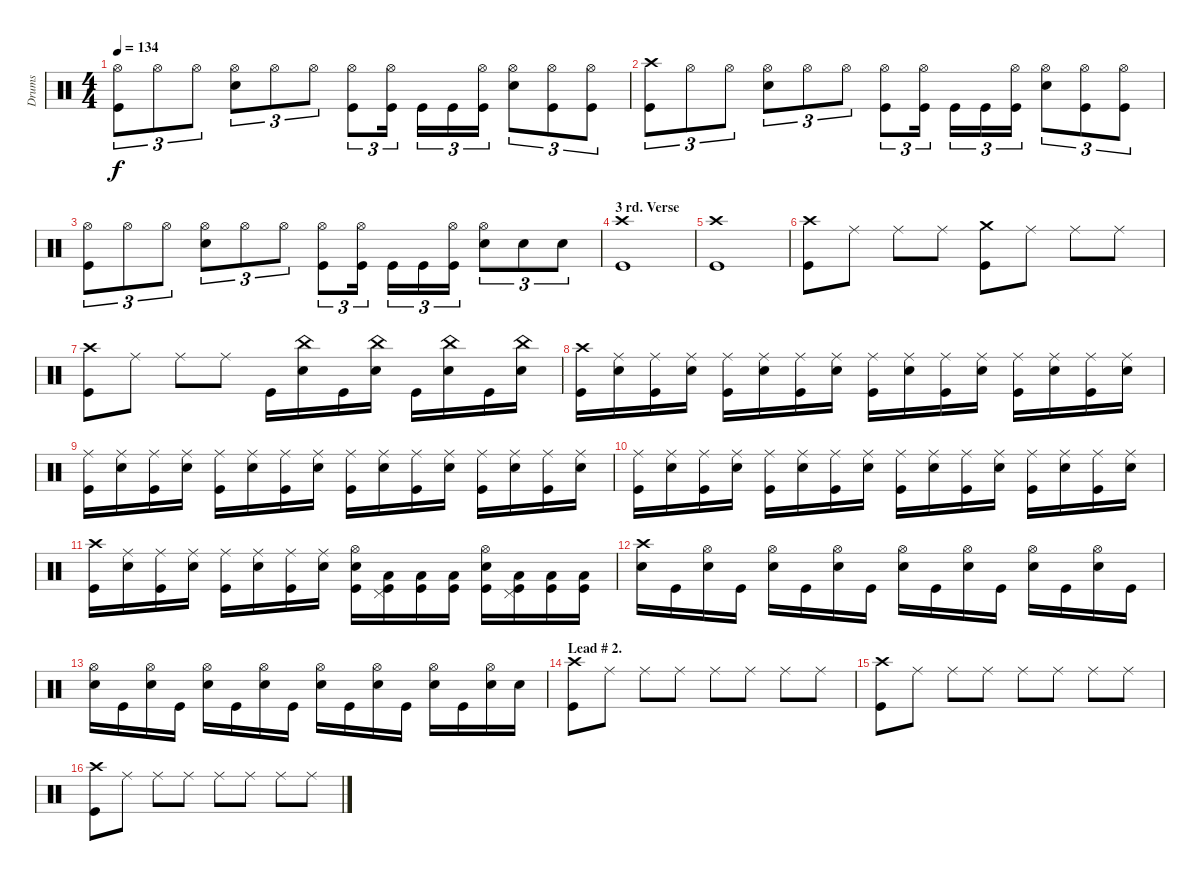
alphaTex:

\track ("Drums" "Drums") {instrument percussion}
\staff {score}
\articulation defaults
\ts (4 4)
\tempo 134
\clef neutral
\ks c
("Hi-Hat (open)" "Kick (hit)").8{tu (3 2) dy f} "Hi-Hat (open)".8{tu (3 2)} "Hi-Hat (open)".8{tu (3 2)} ("Hi-Hat (open)" "Electric Snare (hit)").8{tu (3 2)} "Hi-Hat (open)".8{tu (3 2)} "Hi-Hat (open)".8{tu (3 2)} ("Hi-Hat (open)" "Kick (hit)").8{tu (3 2)} ("Hi-Hat (open)" "Kick (hit)").16{tu (3 2)} "Kick (hit)".16{tu (3 2)} "Kick (hit)".16{tu (3 2)} ("Hi-Hat (open)" "Kick (hit)").16{tu (3 2)} ("Hi-Hat (open)" "Electric Snare (hit)").8{tu (3 2)} ("Hi-Hat (open)" "Kick (hit)").8{tu (3 2)} ("Hi-Hat (open)" "Kick (hit)").8{tu (3 2)} |
("Crash high (hit)" "Kick (hit)").8{tu (3 2)} "Hi-Hat (open)".8{tu (3 2)} "Hi-Hat (open)".8{tu (3 2)} ("Hi-Hat (open)" "Electric Snare (hit)").8{tu (3 2)} "Hi-Hat (open)".8{tu (3 2)} "Hi-Hat (open)".8{tu (3 2)} ("Hi-Hat (open)" "Kick (hit)").8{tu (3 2)} ("Hi-Hat (open)" "Kick (hit)").16{tu (3 2)} "Kick (hit)".16{tu (3 2)} "Kick (hit)".16{tu (3 2)} ("Hi-Hat (open)" "Kick (hit)").16{tu (3 2)} ("Hi-Hat (open)" "Electric Snare (hit)").8{tu (3 2)} ("Hi-Hat (open)" "Kick (hit)").8{tu (3 2)} ("Hi-Hat (open)" "Kick (hit)").8{tu (3 2)} |
("Hi-Hat (open)" "Kick (hit)").8{tu (3 2)} "Hi-Hat (open)".8{tu (3 2)} "Hi-Hat (open)".8{tu (3 2)} ("Hi-Hat (open)" "Electric Snare (hit)").8{tu (3 2)} "Hi-Hat (open)".8{tu (3 2)} "Hi-Hat (open)".8{tu (3 2)} ("Hi-Hat (open)" "Kick (hit)").8{tu (3 2)} ("Hi-Hat (open)" "Kick (hit)").16{tu (3 2)} "Kick (hit)".16{tu (3 2)} "Kick (hit)".16{tu (3 2)} ("Hi-Hat (open)" "Kick (hit)").16{tu (3 2)} ("Hi-Hat (open)" "Electric Snare (hit)").8{tu (3 2)} "Electric Snare (hit)".8{tu (3 2)} "Electric Snare (hit)".8{tu (3 2)} |
\section ("" "3 rd. Verse")
("Crash high (hit)" "Kick (hit)").1 |
("Crash high (hit)" "Kick (hit)").1 |
("Crash high (hit)" "Kick (hit)").8 "Ride (middle)".8 "Ride (middle)".8 "Ride (middle)".8 ("Crash medium (hit)" "Kick (hit)").8 "Ride (middle)".8 "Ride (middle)".8 "Ride (middle)".8 |
("Crash high (hit)" "Kick (hit)").8 "Ride (middle)".8 "Ride (middle)".8 "Ride (middle)".8 "Kick (hit)".16 ("China (hit)" "Electric Snare (hit)").16 "Kick (hit)".16 ("China (hit)" "Electric Snare (hit)").16 "Kick (hit)".16 ("China (hit)" "Electric Snare (hit)").16 "Kick (hit)".16 ("China (hit)" "Electric Snare (hit)").16 |
("Crash high (hit)" "Kick (hit)").16 ("Ride (middle)" "Electric Snare (hit)").16 ("Ride (middle)" "Kick (hit)").16 ("Ride (middle)" "Electric Snare (hit)").16 ("Ride (middle)" "Kick (hit)").16 ("Ride (middle)" "Electric Snare (hit)").16 ("Ride (middle)" "Kick (hit)").16 ("Ride (middle)" "Electric Snare (hit)").16 ("Ride (middle)" "Kick (hit)").16 ("Ride (middle)" "Electric Snare (hit)").16 ("Ride (middle)" "Kick (hit)").16 ("Ride (middle)" "Electric Snare (hit)").16 ("Ride (middle)" "Kick (hit)").16 ("Ride (middle)" "Electric Snare (hit)").16 ("Ride (middle)" "Kick (hit)").16 ("Ride (middle)" "Electric Snare (hit)").16 |
("Ride (middle)" "Kick (hit)").16 ("Ride (middle)" "Electric Snare (hit)").16 ("Ride (middle)" "Kick (hit)").16 ("Ride (middle)" "Electric Snare (hit)").16 ("Ride (middle)" "Kick (hit)").16 ("Ride (middle)" "Electric Snare (hit)").16 ("Ride (middle)" "Kick (hit)").16 ("Ride (middle)" "Electric Snare (hit)").16 ("Ride (middle)" "Kick (hit)").16 ("Ride (middle)" "Electric Snare (hit)").16 ("Ride (middle)" "Kick (hit)").16 ("Ride (middle)" "Electric Snare (hit)").16 ("Ride (middle)" "Kick (hit)").16 ("Ride (middle)" "Electric Snare (hit)").16 ("Ride (middle)" "Kick (hit)").16 ("Ride (middle)" "Electric Snare (hit)").16 |
("Ride (middle)" "Kick (hit)").16 ("Ride (middle)" "Electric Snare (hit)").16 ("Ride (middle)" "Kick (hit)").16 ("Ride (middle)" "Electric Snare (hit)").16 ("Ride (middle)" "Kick (hit)").16 ("Ride (middle)" "Electric Snare (hit)").16 ("Ride (middle)" "Kick (hit)").16 ("Ride (middle)" "Electric Snare (hit)").16 ("Ride (middle)" "Kick (hit)").16 ("Ride (middle)" "Electric Snare (hit)").16 ("Ride (middle)" "Kick (hit)").16 ("Ride (middle)" "Electric Snare (hit)").16 ("Ride (middle)" "Kick (hit)").16 ("Ride (middle)" "Electric Snare (hit)").16 ("Ride (middle)" "Kick (hit)").16 ("Ride (middle)" "Electric Snare (hit)").16 |
("Crash high (hit)" "Kick (hit)").16 ("Ride (middle)" "Electric Snare (hit)").16 ("Ride (middle)" "Kick (hit)").16 ("Ride (middle)" "Electric Snare (hit)").16 ("Ride (middle)" "Kick (hit)").16 ("Ride (middle)" "Electric Snare (hit)").16 ("Ride (middle)" "Kick (hit)").16 ("Ride (middle)" "Electric Snare (hit)").16 ("Hi-Hat (open)" "Electric Snare (hit)" "Kick (hit)").16 ("Pedal Hi-Hat (hit)" "Low Tom (hit)" "Kick (hit)").16 ("Low Tom (hit)" "Kick (hit)").16 ("Low Tom (hit)" "Kick (hit)").16 ("Hi-Hat (open)" "Electric Snare (hit)" "Kick (hit)").16 ("Pedal Hi-Hat (hit)" "Low Tom (hit)" "Kick (hit)").16 ("Low Tom (hit)" "Kick (hit)").16 ("Low Tom (hit)" "Kick (hit)").16 |
("Crash high (hit)" "Electric Snare (hit)").16 "Kick (hit)".16 ("Hi-Hat (open)" "Electric Snare (hit)").16 "Kick (hit)".16 ("Hi-Hat (open)" "Electric Snare (hit)").16 "Kick (hit)".16 ("Hi-Hat (open)" "Electric Snare (hit)").16 "Kick (hit)".16 ("Hi-Hat (open)" "Electric Snare (hit)").16 "Kick (hit)".16 ("Hi-Hat (open)" "Electric Snare (hit)").16 "Kick (hit)".16 ("Hi-Hat (open)" "Electric Snare (hit)").16 "Kick (hit)".16 ("Hi-Hat (open)" "Electric Snare (hit)").16 "Kick (hit)".16 |
("Hi-Hat (open)" "Electric Snare (hit)").16 "Kick (hit)".16 ("Hi-Hat (open)" "Electric Snare (hit)").16 "Kick (hit)".16 ("Hi-Hat (open)" "Electric Snare (hit)").16 "Kick (hit)".16 ("Hi-Hat (open)" "Electric Snare (hit)").16 "Kick (hit)".16 ("Hi-Hat (open)" "Electric Snare (hit)").16 "Kick (hit)".16 ("Hi-Hat (open)" "Electric Snare (hit)").16 "Kick (hit)".16 ("Hi-Hat (open)" "Electric Snare (hit)").16 "Kick (hit)".16 ("Hi-Hat (open)" "Electric Snare (hit)").16 "Electric Snare (hit)".16 |
\section ("" "Lead # 2.")
("Crash high (hit)" "Kick (hit)").8 "Ride (middle)".8 "Ride (middle)".8 "Ride (middle)".8 "Ride (middle)".8 "Ride (middle)".8 "Ride (middle)".8 "Ride (middle)".8 |
("Crash high (hit)" "Kick (hit)").8 "Ride (middle)".8 "Ride (middle)".8 "Ride (middle)".8 "Ride (middle)".8 "Ride (middle)".8 "Ride (middle)".8 "Ride (middle)".8 |
("Crash high (hit)" "Kick (hit)").8 "Ride (middle)".8 "Ride (middle)".8 "Ride (middle)".8 "Ride (middle)".8 "Ride (middle)".8 "Ride (middle)".8 "Ride (middle)".8
